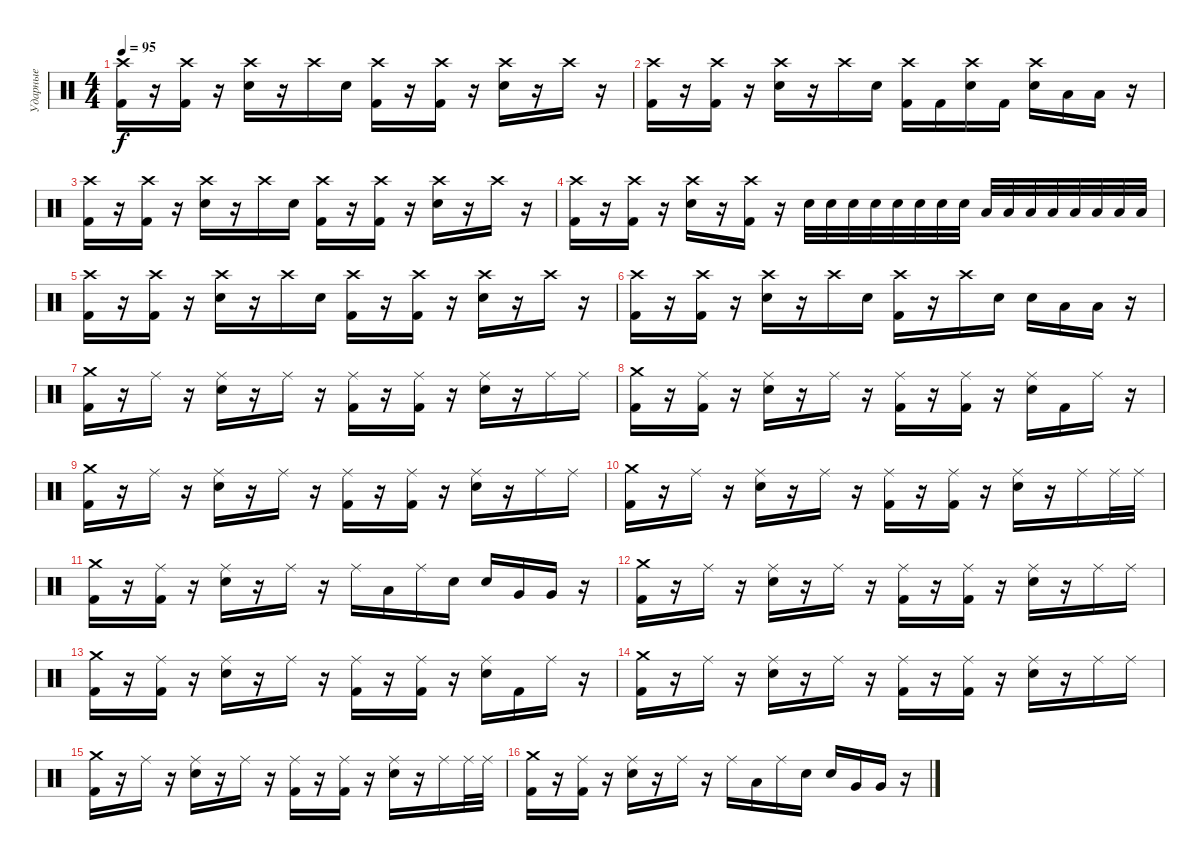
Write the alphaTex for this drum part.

\track ("Ударные" "Ударные") {instrument percussion}
\staff {score}
\articulation defaults
\ts (4 4)
\tempo 95
\clef neutral
\ks c
("Crash high (hit)" "Kick (hit) 2").16{dy f} r.16 ("Crash high (hit)" "Kick (hit) 2").16 r.16 ("Crash high (hit)" "Electric Snare (hit)").16 r.16 "Crash high (hit)".16 "Electric Snare (hit)".16 ("Crash high (hit)" "Kick (hit) 2").16 r.16 ("Crash high (hit)" "Kick (hit) 2").16 r.16 ("Crash high (hit)" "Electric Snare (hit)").16 r.16 "Crash high (hit)".16 r.16 |
("Crash high (hit)" "Kick (hit) 2").16 r.16 ("Crash high (hit)" "Kick (hit) 2").16 r.16 ("Crash high (hit)" "Electric Snare (hit)").16 r.16 "Crash high (hit)".16 "Electric Snare (hit)".16 ("Crash high (hit)" "Kick (hit) 2").16 "Kick (hit) 2".16 ("Crash high (hit)" "Electric Snare (hit)").16 "Kick (hit) 2".16 ("Crash high (hit)" "Electric Snare (hit)").16 "Low Tom (hit)".16 "Low Tom (hit)".16 r.16 |
("Crash high (hit)" "Kick (hit) 2").16 r.16 ("Crash high (hit)" "Kick (hit) 2").16 r.16 ("Crash high (hit)" "Electric Snare (hit)").16 r.16 "Crash high (hit)".16 "Electric Snare (hit)".16 ("Crash high (hit)" "Kick (hit) 2").16 r.16 ("Crash high (hit)" "Kick (hit) 2").16 r.16 ("Crash high (hit)" "Electric Snare (hit)").16 r.16 "Crash high (hit)".16 r.16 |
("Crash high (hit)" "Kick (hit) 2").16 r.16 ("Crash high (hit)" "Kick (hit) 2").16 r.16 ("Crash high (hit)" "Electric Snare (hit)").16 r.16 ("Crash high (hit)" "Kick (hit) 2").16 r.16 "Electric Snare (hit)".32 "Electric Snare (hit)".32 "Electric Snare (hit)".32 "Electric Snare (hit)".32 "Electric Snare (hit)".32 "Electric Snare (hit)".32 "Electric Snare (hit)".32 "Electric Snare (hit)".32 "Low Tom (hit)".32 "Low Tom (hit)".32 "Low Tom (hit)".32 "Low Tom (hit)".32 "Low Tom (hit)".32 "Low Tom (hit)".32 "Low Tom (hit)".32 "Low Tom (hit)".32 |
("Crash high (hit)" "Kick (hit) 2").16 r.16 ("Crash high (hit)" "Kick (hit) 2").16 r.16 ("Crash high (hit)" "Electric Snare (hit)").16 r.16 "Crash high (hit)".16 "Electric Snare (hit)".16 ("Crash high (hit)" "Kick (hit) 2").16 r.16 ("Crash high (hit)" "Kick (hit) 2").16 r.16 ("Crash high (hit)" "Electric Snare (hit)").16 r.16 "Crash high (hit)".16 r.16 |
("Crash high (hit)" "Kick (hit) 2").16 r.16 ("Crash high (hit)" "Kick (hit) 2").16 r.16 ("Crash high (hit)" "Electric Snare (hit)").16 r.16 "Crash high (hit)".16 "Electric Snare (hit)".16 ("Crash high (hit)" "Kick (hit) 2").16 r.16 "Crash high (hit)".16 "Electric Snare (hit)".16 "Electric Snare (hit)".16 "Low Tom (hit)".16 "Low Tom (hit)".16 r.16 |
("Crash medium (hit)" "Kick (hit) 2").16 r.16 "Ride (middle)".16 r.16 ("Ride (middle)" "Electric Snare (hit)").16 r.16 "Ride (middle)".16 r.16 ("Ride (middle)" "Kick (hit) 2").16 r.16 ("Ride (middle)" "Kick (hit) 2").16 r.16 ("Ride (middle)" "Electric Snare (hit)").16 r.16 "Ride (middle)".16 "Ride (middle)".16 |
("Crash medium (hit)" "Kick (hit) 2").16 r.16 ("Ride (middle)" "Kick (hit) 2").16 r.16 ("Ride (middle)" "Electric Snare (hit)").16 r.16 "Ride (middle)".16 r.16 ("Ride (middle)" "Kick (hit) 2").16 r.16 ("Ride (middle)" "Kick (hit) 2").16 r.16 ("Ride (middle)" "Electric Snare (hit)").16 "Kick (hit) 2".16 "Ride (middle)".16 r.16 |
("Crash medium (hit)" "Kick (hit) 2").16 r.16 "Ride (middle)".16 r.16 ("Ride (middle)" "Electric Snare (hit)").16 r.16 "Ride (middle)".16 r.16 ("Ride (middle)" "Kick (hit) 2").16 r.16 ("Ride (middle)" "Kick (hit) 2").16 r.16 ("Ride (middle)" "Electric Snare (hit)").16 r.16 "Ride (middle)".16 "Ride (middle)".16 |
("Crash medium (hit)" "Kick (hit) 2").16 r.16 "Ride (middle)".16 r.16 ("Ride (middle)" "Electric Snare (hit)").16 r.16 "Ride (middle)".16 r.16 ("Ride (middle)" "Kick (hit) 2").16 r.16 ("Ride (middle)" "Kick (hit) 2").16 r.16 ("Ride (middle)" "Electric Snare (hit)").16 r.16 "Ride (middle)".16 "Ride (middle)".32 "Ride (middle)".32 |
("Crash medium (hit)" "Kick (hit) 2").16 r.16 ("Ride (middle)" "Kick (hit) 2").16 r.16 ("Ride (middle)" "Electric Snare (hit)").16 r.16 "Ride (middle)".16 r.16 "Ride (middle)".16 "Low Tom (hit)".16 "Ride (middle)".16 "Electric Snare (hit)".16 "Electric Snare (hit)".16 "Very Low Tom (hit)".16 "Very Low Tom (hit)".16 r.16 |
("Crash medium (hit)" "Kick (hit) 2").16 r.16 "Ride (middle)".16 r.16 ("Ride (middle)" "Electric Snare (hit)").16 r.16 "Ride (middle)".16 r.16 ("Ride (middle)" "Kick (hit) 2").16 r.16 ("Ride (middle)" "Kick (hit) 2").16 r.16 ("Ride (middle)" "Electric Snare (hit)").16 r.16 "Ride (middle)".16 "Ride (middle)".16 |
("Crash medium (hit)" "Kick (hit) 2").16 r.16 ("Ride (middle)" "Kick (hit) 2").16 r.16 ("Ride (middle)" "Electric Snare (hit)").16 r.16 "Ride (middle)".16 r.16 ("Ride (middle)" "Kick (hit) 2").16 r.16 ("Ride (middle)" "Kick (hit) 2").16 r.16 ("Ride (middle)" "Electric Snare (hit)").16 "Kick (hit) 2".16 "Ride (middle)".16 r.16 |
("Crash medium (hit)" "Kick (hit) 2").16 r.16 "Ride (middle)".16 r.16 ("Ride (middle)" "Electric Snare (hit)").16 r.16 "Ride (middle)".16 r.16 ("Ride (middle)" "Kick (hit) 2").16 r.16 ("Ride (middle)" "Kick (hit) 2").16 r.16 ("Ride (middle)" "Electric Snare (hit)").16 r.16 "Ride (middle)".16 "Ride (middle)".16 |
("Crash medium (hit)" "Kick (hit) 2").16 r.16 "Ride (middle)".16 r.16 ("Ride (middle)" "Electric Snare (hit)").16 r.16 "Ride (middle)".16 r.16 ("Ride (middle)" "Kick (hit) 2").16 r.16 ("Ride (middle)" "Kick (hit) 2").16 r.16 ("Ride (middle)" "Electric Snare (hit)").16 r.16 "Ride (middle)".16 "Ride (middle)".32 "Ride (middle)".32 |
("Crash medium (hit)" "Kick (hit) 2").16 r.16 ("Ride (middle)" "Kick (hit) 2").16 r.16 ("Ride (middle)" "Electric Snare (hit)").16 r.16 "Ride (middle)".16 r.16 "Ride (middle)".16 "Low Tom (hit)".16 "Ride (middle)".16 "Electric Snare (hit)".16 "Electric Snare (hit)".16 "Very Low Tom (hit)".16 "Very Low Tom (hit)".16 r.16
